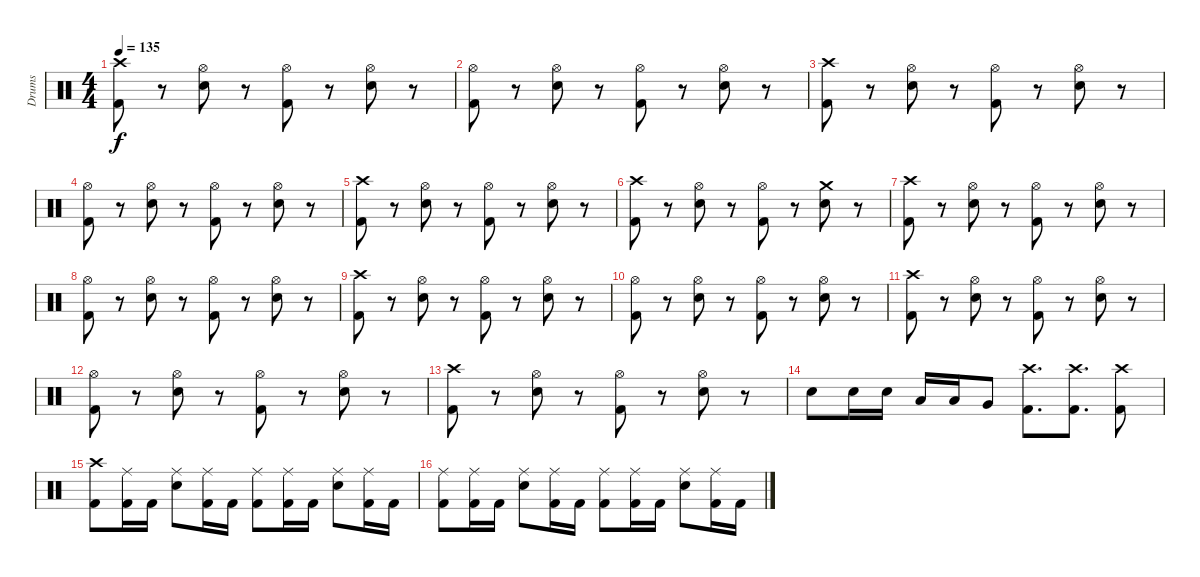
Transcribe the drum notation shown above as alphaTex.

\track ("Drums" "Drums") {instrument percussion}
\staff {score}
\articulation defaults
\ts (4 4)
\tempo 135
\clef neutral
\ks c
("Crash high (hit)" "Kick (hit) 2").8{dy f} r.8 ("Hi-Hat (open)" "Electric Snare (hit)").8 r.8 ("Hi-Hat (open)" "Kick (hit) 2").8 r.8 ("Hi-Hat (open)" "Electric Snare (hit)").8 r.8 |
("Hi-Hat (open)" "Kick (hit) 2").8 r.8 ("Hi-Hat (open)" "Electric Snare (hit)").8 r.8 ("Hi-Hat (open)" "Kick (hit) 2").8 r.8 ("Hi-Hat (open)" "Electric Snare (hit)").8 r.8 |
("Crash high (hit)" "Kick (hit) 2").8 r.8 ("Hi-Hat (open)" "Electric Snare (hit)").8 r.8 ("Hi-Hat (open)" "Kick (hit) 2").8 r.8 ("Hi-Hat (open)" "Electric Snare (hit)").8 r.8 |
("Hi-Hat (open)" "Kick (hit) 2").8 r.8 ("Hi-Hat (open)" "Electric Snare (hit)").8 r.8 ("Hi-Hat (open)" "Kick (hit) 2").8 r.8 ("Hi-Hat (open)" "Electric Snare (hit)").8 r.8 |
("Crash high (hit)" "Kick (hit) 2").8 r.8 ("Hi-Hat (open)" "Electric Snare (hit)").8 r.8 ("Hi-Hat (open)" "Kick (hit) 2").8 r.8 ("Hi-Hat (open)" "Electric Snare (hit)").8 r.8 |
("Crash high (hit)" "Kick (hit) 2").8 r.8 ("Hi-Hat (open)" "Electric Snare (hit)").8 r.8 ("Hi-Hat (open)" "Kick (hit) 2").8 r.8 ("Crash medium (hit)" "Electric Snare (hit)").8 r.8 |
("Crash high (hit)" "Kick (hit) 2").8 r.8 ("Hi-Hat (open)" "Electric Snare (hit)").8 r.8 ("Hi-Hat (open)" "Kick (hit) 2").8 r.8 ("Hi-Hat (open)" "Electric Snare (hit)").8 r.8 |
("Hi-Hat (open)" "Kick (hit) 2").8 r.8 ("Hi-Hat (open)" "Electric Snare (hit)").8 r.8 ("Hi-Hat (open)" "Kick (hit) 2").8 r.8 ("Hi-Hat (open)" "Electric Snare (hit)").8 r.8 |
("Crash high (hit)" "Kick (hit) 2").8 r.8 ("Hi-Hat (open)" "Electric Snare (hit)").8 r.8 ("Hi-Hat (open)" "Kick (hit) 2").8 r.8 ("Hi-Hat (open)" "Electric Snare (hit)").8 r.8 |
("Hi-Hat (open)" "Kick (hit) 2").8 r.8 ("Hi-Hat (open)" "Electric Snare (hit)").8 r.8 ("Hi-Hat (open)" "Kick (hit) 2").8 r.8 ("Hi-Hat (open)" "Electric Snare (hit)").8 r.8 |
("Crash high (hit)" "Kick (hit) 2").8 r.8 ("Hi-Hat (open)" "Electric Snare (hit)").8 r.8 ("Hi-Hat (open)" "Kick (hit) 2").8 r.8 ("Hi-Hat (open)" "Electric Snare (hit)").8 r.8 |
("Hi-Hat (open)" "Kick (hit) 2").8 r.8 ("Hi-Hat (open)" "Electric Snare (hit)").8 r.8 ("Hi-Hat (open)" "Kick (hit) 2").8 r.8 ("Hi-Hat (open)" "Electric Snare (hit)").8 r.8 |
("Crash high (hit)" "Kick (hit) 2").8 r.8 ("Hi-Hat (open)" "Electric Snare (hit)").8 r.8 ("Hi-Hat (open)" "Kick (hit) 2").8 r.8 ("Hi-Hat (open)" "Electric Snare (hit)").8 r.8 |
"Electric Snare (hit)".8 "Electric Snare (hit)".16 "Electric Snare (hit)".16 "Low Tom (hit)".16 "Low Tom (hit)".16 "Very Low Tom (hit)".8 ("Crash high (hit)" "Kick (hit) 2").8{d} ("Crash high (hit)" "Kick (hit) 2").8{d} ("Crash high (hit)" "Kick (hit) 2").8 |
("Crash high (hit)" "Kick (hit) 2").8 ("Ride (middle)" "Kick (hit) 2").16 "Kick (hit) 2".16 ("Ride (middle)" "Electric Snare (hit)").8 ("Ride (middle)" "Kick (hit) 2").16 "Kick (hit) 2".16 ("Ride (middle)" "Kick (hit) 2").8 ("Ride (middle)" "Kick (hit) 2").16 "Kick (hit) 2".16 ("Ride (middle)" "Electric Snare (hit)").8 ("Ride (middle)" "Kick (hit) 2").16 "Kick (hit) 2".16 |
("Ride (middle)" "Kick (hit) 2").8 ("Ride (middle)" "Kick (hit) 2").16 "Kick (hit) 2".16 ("Ride (middle)" "Electric Snare (hit)").8 ("Ride (middle)" "Kick (hit) 2").16 "Kick (hit) 2".16 ("Ride (middle)" "Kick (hit) 2").8 ("Ride (middle)" "Kick (hit) 2").16 "Kick (hit) 2".16 ("Ride (middle)" "Electric Snare (hit)").8 ("Ride (middle)" "Kick (hit) 2").16 "Kick (hit) 2".16
